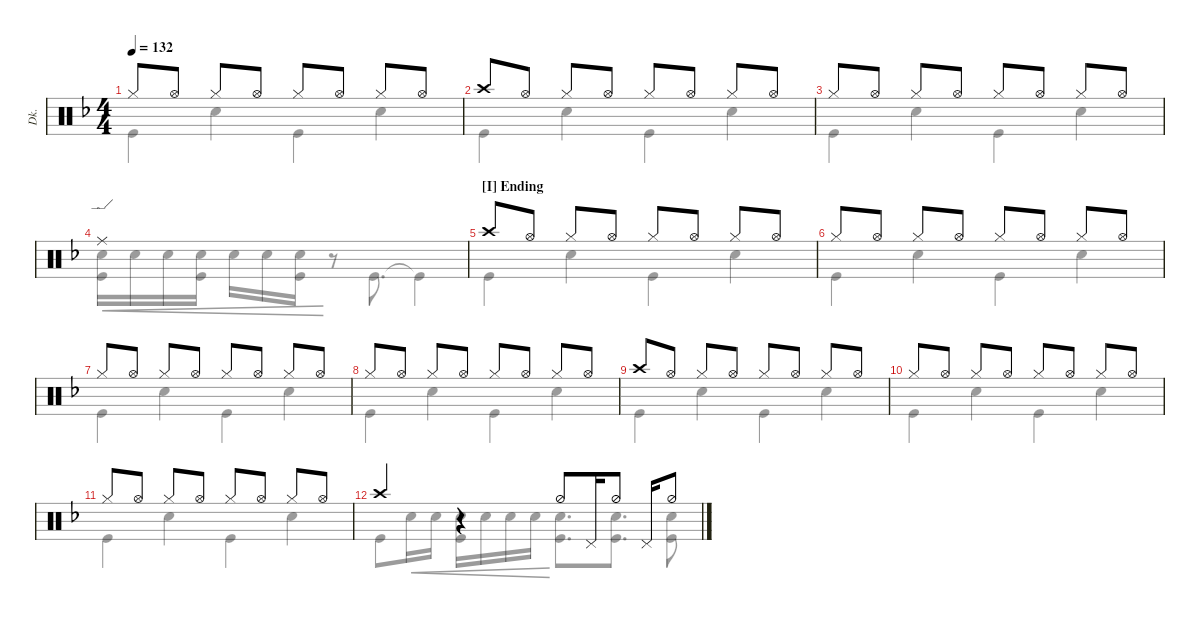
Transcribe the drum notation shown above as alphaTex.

\defaultSystemsLayout 4
\hideDynamics
\bracketExtendMode nobrackets
\otherSystemsTrackNameOrientation horizontal
\track ("Drumkit" "Dk.") {instrument percussion}
\staff {score}
\articulation defaults
\voice
\ts (4 4)
\tempo 132
\clef neutral
\ks f "Hi-Hat (closed)".8{dy mf} "Hi-Hat (open)".8 "Hi-Hat (closed)".8 "Hi-Hat (open)".8 "Hi-Hat (closed)".8 "Hi-Hat (open)".8 "Hi-Hat (closed)".8 "Hi-Hat (open)".8
|
"Crash high (hit)".8 "Hi-Hat (open)".8 "Hi-Hat (closed)".8 "Hi-Hat (open)".8 "Hi-Hat (closed)".8 "Hi-Hat (open)".8 "Hi-Hat (closed)".8 "Hi-Hat (open)".8 |
"Hi-Hat (closed)".8 "Hi-Hat (open)".8 "Hi-Hat (closed)".8 "Hi-Hat (open)".8 "Hi-Hat (closed)".8 "Hi-Hat (open)".8 "Hi-Hat (closed)".8 "Hi-Hat (open)".8 |
"Ride (edge)".1{dy ff} |
\section ("I" "Ending")
"Crash high (hit)".8{dy mf} "Hi-Hat (open)".8 "Hi-Hat (closed)".8 "Hi-Hat (open)".8 "Hi-Hat (closed)".8 "Hi-Hat (open)".8 "Hi-Hat (closed)".8 "Hi-Hat (open)".8 |
"Hi-Hat (closed)".8 "Hi-Hat (open)".8 "Hi-Hat (closed)".8 "Hi-Hat (open)".8 "Hi-Hat (closed)".8 "Hi-Hat (open)".8 "Hi-Hat (closed)".8 "Hi-Hat (open)".8 |
"Hi-Hat (closed)".8 "Hi-Hat (open)".8 "Hi-Hat (closed)".8 "Hi-Hat (open)".8 "Hi-Hat (closed)".8 "Hi-Hat (open)".8 "Hi-Hat (closed)".8 "Hi-Hat (open)".8 |
"Hi-Hat (closed)".8 "Hi-Hat (open)".8 "Hi-Hat (closed)".8 "Hi-Hat (open)".8 "Hi-Hat (closed)".8 "Hi-Hat (open)".8 "Hi-Hat (closed)".8 "Hi-Hat (open)".8 |
"Crash high (hit)".8 "Hi-Hat (open)".8 "Hi-Hat (closed)".8 "Hi-Hat (open)".8 "Hi-Hat (closed)".8 "Hi-Hat (open)".8 "Hi-Hat (closed)".8 "Hi-Hat (open)".8 |
"Hi-Hat (closed)".8 "Hi-Hat (open)".8 "Hi-Hat (closed)".8 "Hi-Hat (open)".8 "Hi-Hat (closed)".8 "Hi-Hat (open)".8 "Hi-Hat (closed)".8 "Hi-Hat (open)".8 |
"Hi-Hat (closed)".8 "Hi-Hat (open)".8 "Hi-Hat (closed)".8 "Hi-Hat (open)".8 "Hi-Hat (closed)".8 "Hi-Hat (open)".8 "Hi-Hat (closed)".8 "Hi-Hat (open)".8 |
"Crash high (hit)".4{dy f} r.4 "Hi-Hat (half)".8 "Pedal Hi-Hat (hit)".16 "Hi-Hat (half)".8 "Pedal Hi-Hat (hit)".16 "Hi-Hat (half)".8 |
\voice
\clef neutral
\ottava regular
\simile none
\ks f "Kick (hit)".4{dy mf} "Snare (hit) 2".4 "Kick (hit)".4 "Snare (hit) 2".4
|
"Kick (hit)".4 "Snare (hit) 2".4 "Kick (hit)".4 "Snare (hit) 2".4 |
"Kick (hit)".4 "Snare (hit) 2".4 "Kick (hit)".4 "Snare (hit) 2".4 |
("Kick (hit)" "Snare (hit) 2").16{cre} "Snare (hit) 2".16{cre} "Snare (hit) 2".16{cre} ("Snare (hit) 2" "Kick (hit)").16{cre} "Snare (hit) 2".16{cre} "Snare (hit) 2".16{cre} ("Snare (hit) 2" "Kick (hit)").16{cre} r.8 "Kick (hit)".8{d} "Kick (hit)"{t}.4 |
"Kick (hit)".4 "Snare (hit) 2".4 "Kick (hit)".4 "Snare (hit) 2".4 |
"Kick (hit)".4 "Snare (hit) 2".4 "Kick (hit)".4 "Snare (hit) 2".4 |
"Kick (hit)".4 "Snare (hit) 2".4 "Kick (hit)".4 "Snare (hit) 2".4 |
"Kick (hit)".4 "Snare (hit) 2".4 "Kick (hit)".4 "Snare (hit) 2".4 |
"Kick (hit)".4 "Snare (hit) 2".4 "Kick (hit)".4 "Snare (hit) 2".4 |
"Kick (hit)".4 "Snare (hit) 2".4 "Kick (hit)".4 "Snare (hit) 2".4 |
"Kick (hit)".4 "Snare (hit) 2".4 "Kick (hit)".4 "Snare (hit) 2".4 |
"Kick (hit)".8 "Snare (hit) 2".16{cre dy p} "Snare (hit) 2".16{cre} ("Snare (hit) 2" "Kick (hit)").16{cre} "Snare (hit) 2".16{cre} "Snare (hit) 2".16{cre} "Snare (hit) 2".16{cre} ("Kick (hit)" "Snare (hit) 2").8{d dy mf} ("Snare (hit) 2" "Kick (hit)").8{d} ("Kick (hit)" "Snare (hit) 2").8 |
